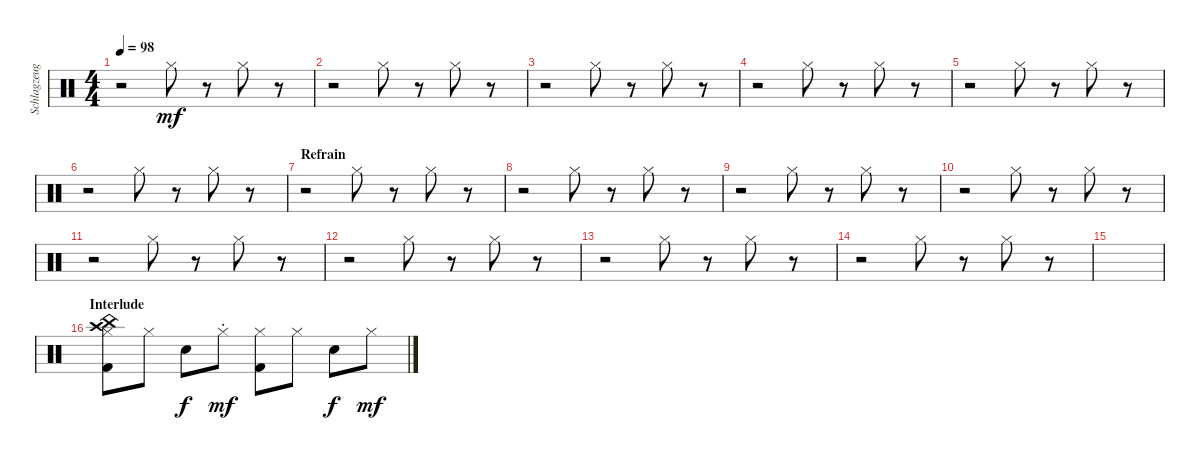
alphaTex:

\track ("Schlagzeug" "Schlagzeug") {instrument percussion}
\staff {score}
\articulation defaults
\ts (4 4)
\tempo 98
\clef neutral
\ks c
r.2{dy mf} "Hi-Hat (closed)".8 r.8 "Hi-Hat (closed)".8 r.8 |
r.2 "Hi-Hat (closed)".8 r.8 "Hi-Hat (closed)".8 r.8 |
r.2 "Hi-Hat (closed)".8 r.8 "Hi-Hat (closed)".8 r.8 |
r.2 "Hi-Hat (closed)".8 r.8 "Hi-Hat (closed)".8 r.8 |
r.2 "Hi-Hat (closed)".8 r.8 "Hi-Hat (closed)".8 r.8 |
r.2 "Hi-Hat (closed)".8 r.8 "Hi-Hat (closed)".8 r.8 |
\section ("" "Refrain")
r.2 "Hi-Hat (closed)".8 r.8 "Hi-Hat (closed)".8 r.8 |
r.2 "Hi-Hat (closed)".8 r.8 "Hi-Hat (closed)".8 r.8 |
r.2 "Hi-Hat (closed)".8 r.8 "Hi-Hat (closed)".8 r.8 |
r.2 "Hi-Hat (closed)".8 r.8 "Hi-Hat (closed)".8 r.8 |
r.2 "Hi-Hat (closed)".8 r.8 "Hi-Hat (closed)".8 r.8 |
r.2 "Hi-Hat (closed)".8 r.8 "Hi-Hat (closed)".8 r.8 |
r.2 "Hi-Hat (closed)".8 r.8 "Hi-Hat (closed)".8 r.8 |
r.2 "Hi-Hat (closed)".8 r.8 "Hi-Hat (closed)".8 r.8 |
|
\section ("" "Interlude")
("China (hit)" "Hi-Hat (closed)" "Crash high (hit)" "Kick (hit) 2").8 "Hi-Hat (closed)".8 "Electric Snare (hit)".8{dy f} "Hi-Hat (closed)"{st}.8{dy mf} ("Hi-Hat (closed)" "Kick (hit) 2").8 "Hi-Hat (closed)".8 "Electric Snare (hit)".8{dy f} "Hi-Hat (closed)".8{dy mf}
